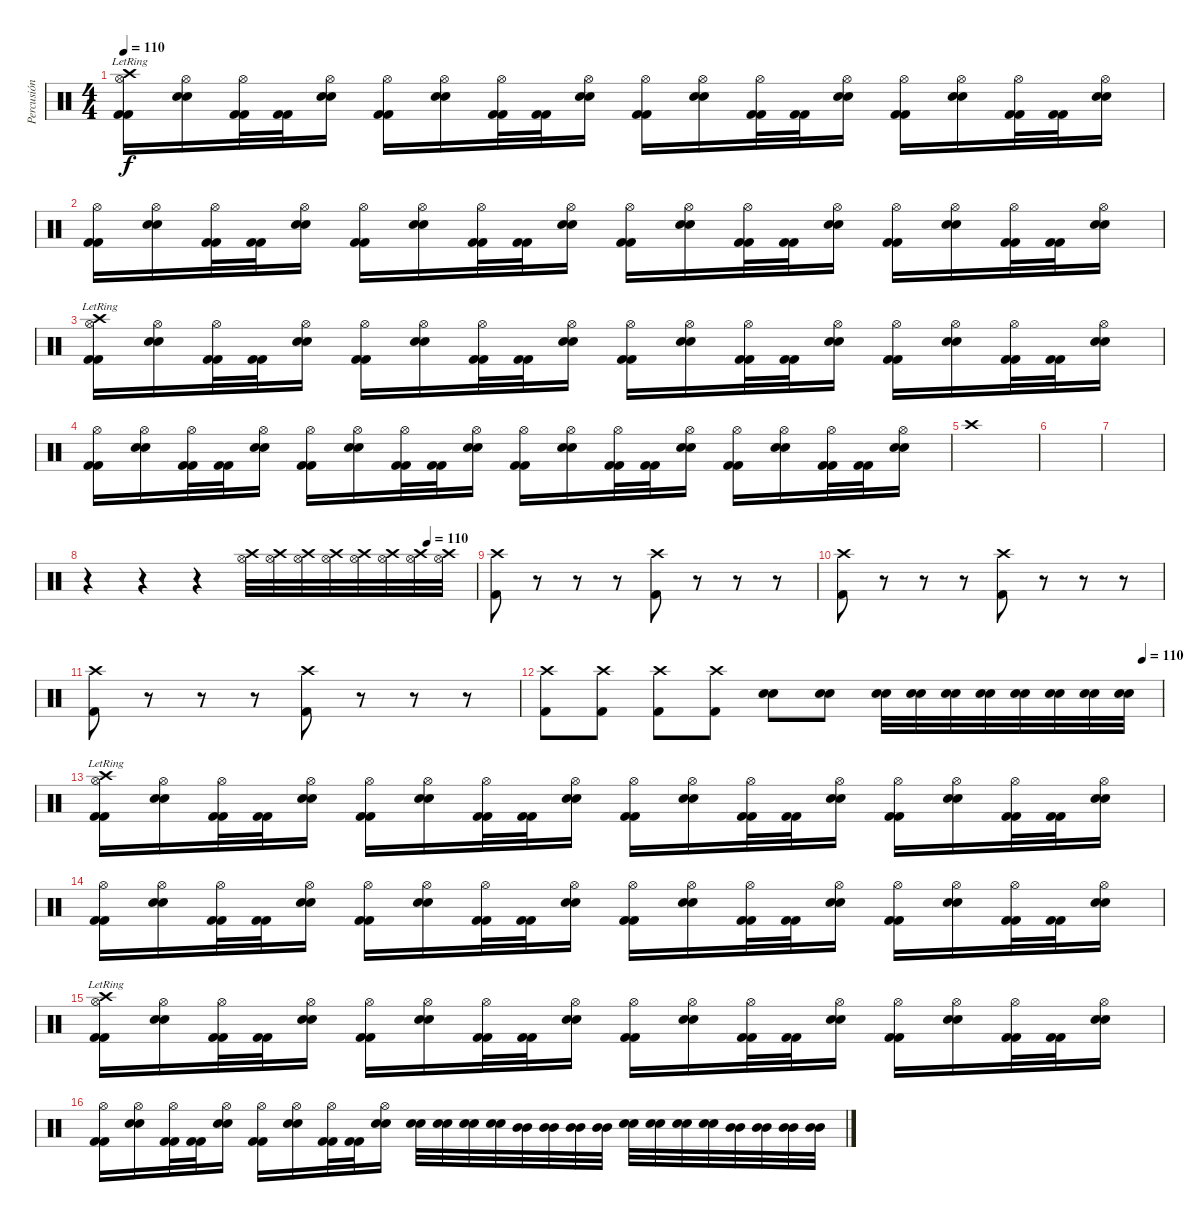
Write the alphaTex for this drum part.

\track ("Percusión" "Percusión") {instrument percussion}
\staff {score}
\articulation defaults
\ts (4 4)
\tempo 110
\clef neutral
\ks c
("Kick (hit) 2" "Kick (hit) 2" "Hi-Hat (open)" "Crash high (hit)"{lr}).16{dy f} ("Snare (hit) 2" "Snare (hit) 2" "Hi-Hat (open)").16 ("Kick (hit) 2" "Kick (hit) 2" "Hi-Hat (open)").32 ("Kick (hit) 2" "Kick (hit) 2").32 ("Snare (hit) 2" "Snare (hit) 2" "Hi-Hat (open)").16 ("Kick (hit) 2" "Kick (hit) 2" "Hi-Hat (open)").16 ("Snare (hit) 2" "Snare (hit) 2" "Hi-Hat (open)").16 ("Kick (hit) 2" "Kick (hit) 2" "Hi-Hat (open)").32 ("Kick (hit) 2" "Kick (hit) 2").32 ("Snare (hit) 2" "Snare (hit) 2" "Hi-Hat (open)").16 ("Kick (hit) 2" "Kick (hit) 2" "Hi-Hat (open)").16 ("Snare (hit) 2" "Snare (hit) 2" "Hi-Hat (open)").16 ("Kick (hit) 2" "Kick (hit) 2" "Hi-Hat (open)").32 ("Kick (hit) 2" "Kick (hit) 2").32 ("Snare (hit) 2" "Snare (hit) 2" "Hi-Hat (open)").16 ("Kick (hit) 2" "Kick (hit) 2" "Hi-Hat (open)").16 ("Snare (hit) 2" "Snare (hit) 2" "Hi-Hat (open)").16 ("Kick (hit) 2" "Kick (hit) 2" "Hi-Hat (open)").32 ("Kick (hit) 2" "Kick (hit) 2").32 ("Snare (hit) 2" "Snare (hit) 2" "Hi-Hat (open)").16 |
("Kick (hit) 2" "Kick (hit) 2" "Hi-Hat (open)").16 ("Snare (hit) 2" "Snare (hit) 2" "Hi-Hat (open)").16 ("Kick (hit) 2" "Kick (hit) 2" "Hi-Hat (open)").32 ("Kick (hit) 2" "Kick (hit) 2").32 ("Snare (hit) 2" "Snare (hit) 2" "Hi-Hat (open)").16 ("Kick (hit) 2" "Kick (hit) 2" "Hi-Hat (open)").16 ("Snare (hit) 2" "Snare (hit) 2" "Hi-Hat (open)").16 ("Kick (hit) 2" "Kick (hit) 2" "Hi-Hat (open)").32 ("Kick (hit) 2" "Kick (hit) 2").32 ("Snare (hit) 2" "Snare (hit) 2" "Hi-Hat (open)").16 ("Kick (hit) 2" "Kick (hit) 2" "Hi-Hat (open)").16 ("Snare (hit) 2" "Snare (hit) 2" "Hi-Hat (open)").16 ("Kick (hit) 2" "Kick (hit) 2" "Hi-Hat (open)").32 ("Kick (hit) 2" "Kick (hit) 2").32 ("Snare (hit) 2" "Snare (hit) 2" "Hi-Hat (open)").16 ("Kick (hit) 2" "Kick (hit) 2" "Hi-Hat (open)").16 ("Snare (hit) 2" "Snare (hit) 2" "Hi-Hat (open)").16 ("Kick (hit) 2" "Kick (hit) 2" "Hi-Hat (open)").32 ("Kick (hit) 2" "Kick (hit) 2").32 ("Snare (hit) 2" "Snare (hit) 2" "Hi-Hat (open)").16 |
("Kick (hit) 2" "Kick (hit) 2" "Hi-Hat (open)" "Crash high (hit)"{lr}).16 ("Snare (hit) 2" "Snare (hit) 2" "Hi-Hat (open)").16 ("Kick (hit) 2" "Kick (hit) 2" "Hi-Hat (open)").32 ("Kick (hit) 2" "Kick (hit) 2").32 ("Snare (hit) 2" "Snare (hit) 2" "Hi-Hat (open)").16 ("Kick (hit) 2" "Kick (hit) 2" "Hi-Hat (open)").16 ("Snare (hit) 2" "Snare (hit) 2" "Hi-Hat (open)").16 ("Kick (hit) 2" "Kick (hit) 2" "Hi-Hat (open)").32 ("Kick (hit) 2" "Kick (hit) 2").32 ("Snare (hit) 2" "Snare (hit) 2" "Hi-Hat (open)").16 ("Kick (hit) 2" "Kick (hit) 2" "Hi-Hat (open)").16 ("Snare (hit) 2" "Snare (hit) 2" "Hi-Hat (open)").16 ("Kick (hit) 2" "Kick (hit) 2" "Hi-Hat (open)").32 ("Kick (hit) 2" "Kick (hit) 2").32 ("Snare (hit) 2" "Snare (hit) 2" "Hi-Hat (open)").16 ("Kick (hit) 2" "Kick (hit) 2" "Hi-Hat (open)").16 ("Snare (hit) 2" "Snare (hit) 2" "Hi-Hat (open)").16 ("Kick (hit) 2" "Kick (hit) 2" "Hi-Hat (open)").32 ("Kick (hit) 2" "Kick (hit) 2").32 ("Snare (hit) 2" "Snare (hit) 2" "Hi-Hat (open)").16 |
("Kick (hit) 2" "Kick (hit) 2" "Hi-Hat (open)").16 ("Snare (hit) 2" "Snare (hit) 2" "Hi-Hat (open)").16 ("Kick (hit) 2" "Kick (hit) 2" "Hi-Hat (open)").32 ("Kick (hit) 2" "Kick (hit) 2").32 ("Snare (hit) 2" "Snare (hit) 2" "Hi-Hat (open)").16 ("Kick (hit) 2" "Kick (hit) 2" "Hi-Hat (open)").16 ("Snare (hit) 2" "Snare (hit) 2" "Hi-Hat (open)").16 ("Kick (hit) 2" "Kick (hit) 2" "Hi-Hat (open)").32 ("Kick (hit) 2" "Kick (hit) 2").32 ("Snare (hit) 2" "Snare (hit) 2" "Hi-Hat (open)").16 ("Kick (hit) 2" "Kick (hit) 2" "Hi-Hat (open)").16 ("Snare (hit) 2" "Snare (hit) 2" "Hi-Hat (open)").16 ("Kick (hit) 2" "Kick (hit) 2" "Hi-Hat (open)").32 ("Kick (hit) 2" "Kick (hit) 2").32 ("Snare (hit) 2" "Snare (hit) 2" "Hi-Hat (open)").16 ("Kick (hit) 2" "Kick (hit) 2" "Hi-Hat (open)").16 ("Snare (hit) 2" "Snare (hit) 2" "Hi-Hat (open)").16 ("Kick (hit) 2" "Kick (hit) 2" "Hi-Hat (open)").32 ("Kick (hit) 2" "Kick (hit) 2").32 ("Snare (hit) 2" "Snare (hit) 2" "Hi-Hat (open)").16 |
"Crash high (hit)".1 |
|
|
\tempo (110 0.875)
r.4 r.4 r.4 ("Crash high (hit)" "Hi-Hat (open)").32 ("Crash high (hit)" "Hi-Hat (open)").32 ("Crash high (hit)" "Hi-Hat (open)").32 ("Crash high (hit)" "Hi-Hat (open)").32 ("Crash high (hit)" "Hi-Hat (open)").32 ("Crash high (hit)" "Hi-Hat (open)").32 ("Crash high (hit)" "Hi-Hat (open)").32 ("Crash high (hit)" "Hi-Hat (open)").32 |
("Crash high (hit)" "Kick (hit) 2").8 r.8 r.8 r.8 ("Crash high (hit)" "Kick (hit) 2").8 r.8 r.8 r.8 |
("Crash high (hit)" "Kick (hit) 2").8 r.8 r.8 r.8 ("Crash high (hit)" "Kick (hit) 2").8 r.8 r.8 r.8 |
("Crash high (hit)" "Kick (hit) 2").8 r.8 r.8 r.8 ("Crash high (hit)" "Kick (hit) 2").8 r.8 r.8 r.8 |
\tempo (110 0.96875)
("Crash high (hit)" "Kick (hit) 2").8 ("Crash high (hit)" "Kick (hit) 2").8 ("Crash high (hit)" "Kick (hit) 2").8 ("Crash high (hit)" "Kick (hit) 2").8 ("Snare (hit) 2" "Snare (hit) 2").8 ("Snare (hit) 2" "Snare (hit) 2").8 ("Snare (hit) 2" "Snare (hit) 2").32 ("Snare (hit) 2" "Snare (hit) 2").32 ("Snare (hit) 2" "Snare (hit) 2").32 ("Snare (hit) 2" "Snare (hit) 2").32 ("Snare (hit) 2" "Snare (hit) 2").32 ("Snare (hit) 2" "Snare (hit) 2").32 ("Snare (hit) 2" "Snare (hit) 2").32 ("Snare (hit) 2" "Snare (hit) 2").32 |
("Kick (hit) 2" "Kick (hit) 2" "Hi-Hat (open)" "Crash high (hit)"{lr}).16 ("Snare (hit) 2" "Snare (hit) 2" "Hi-Hat (open)").16 ("Kick (hit) 2" "Kick (hit) 2" "Hi-Hat (open)").32 ("Kick (hit) 2" "Kick (hit) 2").32 ("Snare (hit) 2" "Snare (hit) 2" "Hi-Hat (open)").16 ("Kick (hit) 2" "Kick (hit) 2" "Hi-Hat (open)").16 ("Snare (hit) 2" "Snare (hit) 2" "Hi-Hat (open)").16 ("Kick (hit) 2" "Kick (hit) 2" "Hi-Hat (open)").32 ("Kick (hit) 2" "Kick (hit) 2").32 ("Snare (hit) 2" "Snare (hit) 2" "Hi-Hat (open)").16 ("Kick (hit) 2" "Kick (hit) 2" "Hi-Hat (open)").16 ("Snare (hit) 2" "Snare (hit) 2" "Hi-Hat (open)").16 ("Kick (hit) 2" "Kick (hit) 2" "Hi-Hat (open)").32 ("Kick (hit) 2" "Kick (hit) 2").32 ("Snare (hit) 2" "Snare (hit) 2" "Hi-Hat (open)").16 ("Kick (hit) 2" "Kick (hit) 2" "Hi-Hat (open)").16 ("Snare (hit) 2" "Snare (hit) 2" "Hi-Hat (open)").16 ("Kick (hit) 2" "Kick (hit) 2" "Hi-Hat (open)").32 ("Kick (hit) 2" "Kick (hit) 2").32 ("Snare (hit) 2" "Snare (hit) 2" "Hi-Hat (open)").16 |
("Kick (hit) 2" "Kick (hit) 2" "Hi-Hat (open)").16 ("Snare (hit) 2" "Snare (hit) 2" "Hi-Hat (open)").16 ("Kick (hit) 2" "Kick (hit) 2" "Hi-Hat (open)").32 ("Kick (hit) 2" "Kick (hit) 2").32 ("Snare (hit) 2" "Snare (hit) 2" "Hi-Hat (open)").16 ("Kick (hit) 2" "Kick (hit) 2" "Hi-Hat (open)").16 ("Snare (hit) 2" "Snare (hit) 2" "Hi-Hat (open)").16 ("Kick (hit) 2" "Kick (hit) 2" "Hi-Hat (open)").32 ("Kick (hit) 2" "Kick (hit) 2").32 ("Snare (hit) 2" "Snare (hit) 2" "Hi-Hat (open)").16 ("Kick (hit) 2" "Kick (hit) 2" "Hi-Hat (open)").16 ("Snare (hit) 2" "Snare (hit) 2" "Hi-Hat (open)").16 ("Kick (hit) 2" "Kick (hit) 2" "Hi-Hat (open)").32 ("Kick (hit) 2" "Kick (hit) 2").32 ("Snare (hit) 2" "Snare (hit) 2" "Hi-Hat (open)").16 ("Kick (hit) 2" "Kick (hit) 2" "Hi-Hat (open)").16 ("Snare (hit) 2" "Snare (hit) 2" "Hi-Hat (open)").16 ("Kick (hit) 2" "Kick (hit) 2" "Hi-Hat (open)").32 ("Kick (hit) 2" "Kick (hit) 2").32 ("Snare (hit) 2" "Snare (hit) 2" "Hi-Hat (open)").16 |
("Kick (hit) 2" "Kick (hit) 2" "Hi-Hat (open)" "Crash high (hit)"{lr}).16 ("Snare (hit) 2" "Snare (hit) 2" "Hi-Hat (open)").16 ("Kick (hit) 2" "Kick (hit) 2" "Hi-Hat (open)").32 ("Kick (hit) 2" "Kick (hit) 2").32 ("Snare (hit) 2" "Snare (hit) 2" "Hi-Hat (open)").16 ("Kick (hit) 2" "Kick (hit) 2" "Hi-Hat (open)").16 ("Snare (hit) 2" "Snare (hit) 2" "Hi-Hat (open)").16 ("Kick (hit) 2" "Kick (hit) 2" "Hi-Hat (open)").32 ("Kick (hit) 2" "Kick (hit) 2").32 ("Snare (hit) 2" "Snare (hit) 2" "Hi-Hat (open)").16 ("Kick (hit) 2" "Kick (hit) 2" "Hi-Hat (open)").16 ("Snare (hit) 2" "Snare (hit) 2" "Hi-Hat (open)").16 ("Kick (hit) 2" "Kick (hit) 2" "Hi-Hat (open)").32 ("Kick (hit) 2" "Kick (hit) 2").32 ("Snare (hit) 2" "Snare (hit) 2" "Hi-Hat (open)").16 ("Kick (hit) 2" "Kick (hit) 2" "Hi-Hat (open)").16 ("Snare (hit) 2" "Snare (hit) 2" "Hi-Hat (open)").16 ("Kick (hit) 2" "Kick (hit) 2" "Hi-Hat (open)").32 ("Kick (hit) 2" "Kick (hit) 2").32 ("Snare (hit) 2" "Snare (hit) 2" "Hi-Hat (open)").16 |
("Kick (hit) 2" "Kick (hit) 2" "Hi-Hat (open)").16 ("Snare (hit) 2" "Snare (hit) 2" "Hi-Hat (open)").16 ("Kick (hit) 2" "Kick (hit) 2" "Hi-Hat (open)").32 ("Kick (hit) 2" "Kick (hit) 2").32 ("Snare (hit) 2" "Snare (hit) 2" "Hi-Hat (open)").16 ("Kick (hit) 2" "Kick (hit) 2" "Hi-Hat (open)").16 ("Snare (hit) 2" "Snare (hit) 2" "Hi-Hat (open)").16 ("Kick (hit) 2" "Kick (hit) 2" "Hi-Hat (open)").32 ("Kick (hit) 2" "Kick (hit) 2").32 ("Snare (hit) 2" "Snare (hit) 2" "Hi-Hat (open)").16 ("Snare (hit) 2" "Snare (hit) 2").32 ("Snare (hit) 2" "Snare (hit) 2").32 ("Snare (hit) 2" "Snare (hit) 2").32 ("Snare (hit) 2" "Snare (hit) 2").32 ("Mid Tom (hit)" "Mid Tom (hit)").32 ("Mid Tom (hit)" "Mid Tom (hit)").32 ("Mid Tom (hit)" "Mid Tom (hit)").32 ("Mid Tom (hit)" "Mid Tom (hit)").32 ("Snare (hit) 2" "Snare (hit) 2").32 ("Snare (hit) 2" "Snare (hit) 2").32 ("Snare (hit) 2" "Snare (hit) 2").32 ("Snare (hit) 2" "Snare (hit) 2").32 ("Mid Tom (hit)" "Mid Tom (hit)").32 ("Mid Tom (hit)" "Mid Tom (hit)").32 ("Mid Tom (hit)" "Mid Tom (hit)").32 ("Mid Tom (hit)" "Mid Tom (hit)").32
